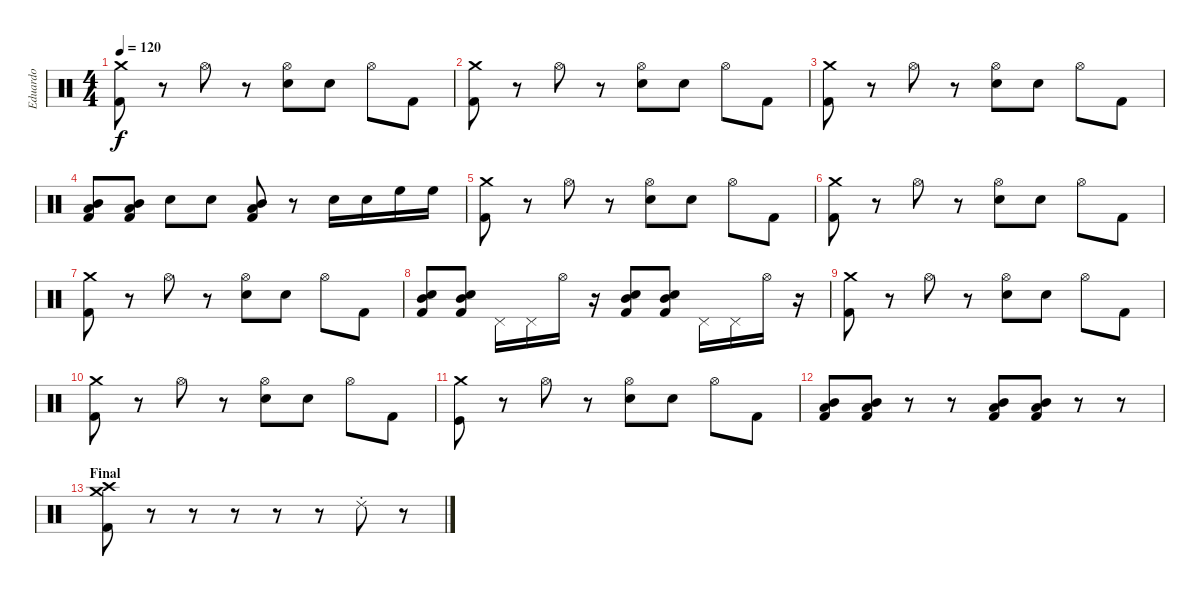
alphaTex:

\track ("Eduardo" "Eduardo") {instrument percussion}
\staff {score}
\articulation defaults
\ts (4 4)
\tempo 120
\clef neutral
\ks c
("Crash medium (hit)" "Kick (hit) 2").8{dy f} r.8 "Hi-Hat (open)".8 r.8 ("Hi-Hat (open)" "Snare (hit) 2").8 "Snare (hit) 2".8 "Hi-Hat (open)".8 "Kick (hit) 2".8 |
("Crash medium (hit)" "Kick (hit) 2").8 r.8 "Hi-Hat (open)".8 r.8 ("Hi-Hat (open)" "Snare (hit) 2").8 "Snare (hit) 2".8 "Hi-Hat (open)".8 "Kick (hit) 2".8 |
("Crash medium (hit)" "Kick (hit) 2").8 r.8 "Hi-Hat (open)".8 r.8 ("Hi-Hat (open)" "Snare (hit) 2").8 "Snare (hit) 2".8 "Hi-Hat (open)".8 "Kick (hit) 2".8 |
("Mid Tom (hit)" "Low Tom (hit)" "Kick (hit) 2").8 ("Mid Tom (hit)" "Low Tom (hit)" "Kick (hit) 2").8 "Snare (hit) 2".8 "Snare (hit) 2".8 ("Mid Tom (hit)" "Low Tom (hit)" "Kick (hit) 2").8 r.8 "Snare (hit) 2".16 "Snare (hit) 2".16 "High Floor Tom (hit)".16 "High Floor Tom (hit)".16 |
("Crash medium (hit)" "Kick (hit) 2").8 r.8 "Hi-Hat (open)".8 r.8 ("Hi-Hat (open)" "Snare (hit) 2").8 "Snare (hit) 2".8 "Hi-Hat (open)".8 "Kick (hit) 2".8 |
("Crash medium (hit)" "Kick (hit) 2").8 r.8 "Hi-Hat (open)".8 r.8 ("Hi-Hat (open)" "Snare (hit) 2").8 "Snare (hit) 2".8 "Hi-Hat (open)".8 "Kick (hit) 2".8 |
("Crash medium (hit)" "Kick (hit) 2").8 r.8 "Hi-Hat (open)".8 r.8 ("Hi-Hat (open)" "Snare (hit) 2").8 "Snare (hit) 2".8 "Hi-Hat (open)".8 "Kick (hit) 2".8 |
("Mid Tom (hit)" "Snare (hit) 2" "Kick (hit) 2").8 ("Mid Tom (hit)" "Snare (hit) 2" "Kick (hit) 2").8 "Pedal Hi-Hat (hit)".16 "Pedal Hi-Hat (hit)".16 "Hi-Hat (open)".16 r.16 ("Mid Tom (hit)" "Snare (hit) 2" "Kick (hit) 2").8 ("Mid Tom (hit)" "Snare (hit) 2" "Kick (hit) 2").8 "Pedal Hi-Hat (hit)".16 "Pedal Hi-Hat (hit)".16 "Hi-Hat (open)".16 r.16 |
("Crash medium (hit)" "Kick (hit) 2").8 r.8 "Hi-Hat (open)".8 r.8 ("Hi-Hat (open)" "Snare (hit) 2").8 "Snare (hit) 2".8 "Hi-Hat (open)".8 "Kick (hit) 2".8 |
("Crash medium (hit)" "Kick (hit) 2").8 r.8 "Hi-Hat (open)".8 r.8 ("Hi-Hat (open)" "Snare (hit) 2").8 "Snare (hit) 2".8 "Hi-Hat (open)".8 "Kick (hit) 2".8 |
("Crash medium (hit)" "Kick (hit)").8 r.8 "Hi-Hat (open)".8 r.8 ("Hi-Hat (open)" "Snare (hit) 2").8 "Snare (hit) 2".8 "Hi-Hat (open)".8 "Kick (hit) 2".8 |
("Mid Tom (hit)" "Low Tom (hit)" "Kick (hit) 2").8 ("Mid Tom (hit)" "Low Tom (hit)" "Kick (hit) 2").8 r.8 r.8 ("Mid Tom (hit)" "Low Tom (hit)" "Kick (hit) 2").8 ("Mid Tom (hit)" "Low Tom (hit)" "Kick (hit) 2").8 r.8 r.8 |
\section ("" "Final")
("Crash high (hit)" "Crash medium (hit)" "Kick (hit) 2").8 r.8 r.8 r.8 r.8 r.8 "Ride (choke) 2".8 r.8
